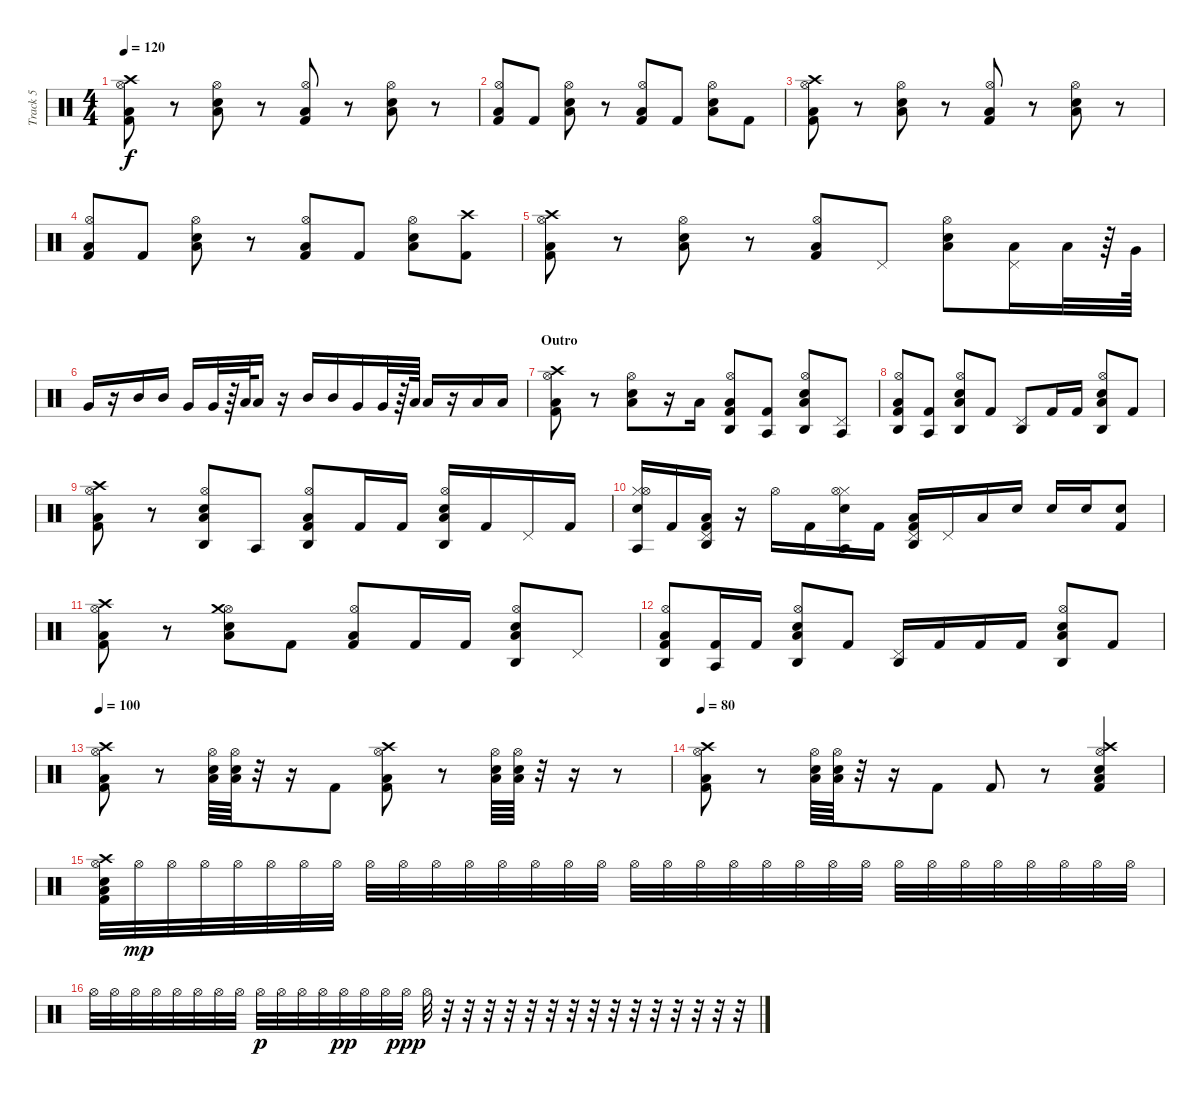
\track ("Track 5" "Track 5") {instrument percussion}
\staff {score}
\articulation defaults
\ts (4 4)
\tempo 120
\clef neutral
\ks c
("Kick (hit) 2" "Hi-Hat (open)" "Low Floor Tom (hit)" "Crash high (hit)").8{dy f} r.8 ("Snare (hit) 2" "Hi-Hat (open)" "Low Tom (hit)").8 r.8 ("Kick (hit) 2" "Hi-Hat (open)" "Low Floor Tom (hit)").8 r.8 ("Snare (hit) 2" "Hi-Hat (open)" "Low Tom (hit)").8 r.8 |
("Kick (hit) 2" "Hi-Hat (open)" "Low Floor Tom (hit)").8 "Kick (hit) 2".8 ("Snare (hit) 2" "Hi-Hat (open)" "Low Tom (hit)").8 r.8 ("Kick (hit) 2" "Hi-Hat (open)" "Low Floor Tom (hit)").8 "Kick (hit) 2".8 ("Snare (hit) 2" "Hi-Hat (open)" "Low Tom (hit)").8 "Kick (hit) 2".8 |
("Kick (hit) 2" "Hi-Hat (open)" "Low Floor Tom (hit)" "Crash high (hit)").8 r.8 ("Snare (hit) 2" "Hi-Hat (open)" "Low Tom (hit)").8 r.8 ("Kick (hit) 2" "Hi-Hat (open)" "Low Floor Tom (hit)").8 r.8 ("Snare (hit) 2" "Hi-Hat (open)" "Low Tom (hit)").8 r.8 |
("Kick (hit) 2" "Hi-Hat (open)" "Low Floor Tom (hit)").8 "Kick (hit) 2".8 ("Snare (hit) 2" "Hi-Hat (open)" "Low Tom (hit)").8 r.8 ("Kick (hit) 2" "Hi-Hat (open)" "Low Floor Tom (hit)").8 "Kick (hit) 2".8 ("Snare (hit) 2" "Hi-Hat (open)" "Low Tom (hit)").8 ("Kick (hit) 2" "Crash high (hit)").8 |
("Kick (hit) 2" "Hi-Hat (open)" "Low Floor Tom (hit)" "Crash high (hit)").8 r.8 ("Snare (hit) 2" "Hi-Hat (open)" "Low Tom (hit)").8 r.8 ("Kick (hit) 2" "Hi-Hat (open)" "Low Floor Tom (hit)").8 "Pedal Hi-Hat (hit)".8 ("Snare (hit) 2" "Hi-Hat (open)" "Low Tom (hit)").8 ("Pedal Hi-Hat (hit)" "Low Tom (hit)").16 "Low Tom (hit)".32 r.64 "Very Low Tom (hit)".64 |
"Very Low Tom (hit)".16 r.16 "Mid Tom (hit)".16 "Mid Tom (hit)".16 "Very Low Tom (hit)".16 "Very Low Tom (hit)".32 r.64 "Low Tom (hit)".64 "Low Tom (hit)".16 r.16 "Mid Tom (hit)".16 "Mid Tom (hit)".16 "Very Low Tom (hit)".16 "Very Low Tom (hit)".32 r.64 "Low Tom (hit)".64 "Low Tom (hit)".16 r.16 "Low Tom (hit)".16 "Low Tom (hit)".16 |
\section ("" "Outro")
("Kick (hit) 2" "Hi-Hat (open)" "Low Floor Tom (hit)" "Crash high (hit)").8 r.8 ("Snare (hit) 2" "Hi-Hat (open)" "Low Tom (hit)").8 r.16 "Low Tom (hit)".16 ("Kick (hit) 2" "Hi-Hat (open)" "Low Floor Tom (hit)" "Agogo high (hit)").8 ("Kick (hit) 2" "Agogo tow (hit)").8 ("Snare (hit) 2" "Hi-Hat (open)" "Low Tom (hit)" "Agogo high (hit)").8 ("Pedal Hi-Hat (hit)" "Agogo tow (hit)").8 |
("Kick (hit) 2" "Hi-Hat (open)" "Low Floor Tom (hit)" "Agogo high (hit)").8 ("Kick (hit) 2" "Agogo tow (hit)").8 ("Snare (hit) 2" "Hi-Hat (open)" "Low Tom (hit)" "Agogo high (hit)").8 "Kick (hit) 2".8 ("Pedal Hi-Hat (hit)" "Agogo high (hit)").8 "Kick (hit) 2".16 "Kick (hit) 2".16 ("Snare (hit) 2" "Hi-Hat (open)" "Low Tom (hit)" "Agogo high (hit)").8 "Kick (hit) 2".8 |
("Kick (hit) 2" "Hi-Hat (open)" "Low Floor Tom (hit)" "Crash high (hit)").8 r.8 ("Snare (hit) 2" "Hi-Hat (open)" "Low Tom (hit)" "Agogo high (hit)").8 "Agogo tow (hit)".8 ("Kick (hit) 2" "Hi-Hat (open)" "Low Floor Tom (hit)" "Agogo high (hit)").8 "Kick (hit) 2".16 "Kick (hit) 2".16 ("Snare (hit) 2" "Hi-Hat (open)" "Low Tom (hit)" "Agogo high (hit)").16 "Kick (hit) 2".16 "Pedal Hi-Hat (hit)".16 "Kick (hit) 2".16 |
("Hi-Hat (closed)" "Hi-Hat (open)" "Agogo tow (hit)" "Electric Snare (hit)").16 "Kick (hit) 2".16 ("Pedal Hi-Hat (hit)" "Kick (hit) 2" "Low Floor Tom (hit)" "Agogo high (hit)").16 r.16 "Hi-Hat (open)".16 "Kick (hit) 2".16 ("Hi-Hat (closed)" "Hi-Hat (open)" "Agogo tow (hit)" "Electric Snare (hit)").16 "Kick (hit) 2".16 ("Pedal Hi-Hat (hit)" "Kick (hit) 2" "Low Floor Tom (hit)" "Agogo high (hit)").16 "Pedal Hi-Hat (hit)".16 "Low Tom (hit)".16 "Electric Snare (hit)".16 "Electric Snare (hit)".16 "Electric Snare (hit)".16 ("Kick (hit) 2" "Snare (hit) 2").8 |
("Kick (hit) 2" "Hi-Hat (open)" "Low Floor Tom (hit)" "Crash high (hit)").8 r.8 ("Snare (hit) 2" "Hi-Hat (open)" "Low Tom (hit)" "Crash medium (hit)").8 "Kick (hit) 2".8 ("Kick (hit) 2" "Hi-Hat (open)" "Low Floor Tom (hit)").8 "Kick (hit) 2".16 "Kick (hit) 2".16 ("Snare (hit) 2" "Hi-Hat (open)" "Low Tom (hit)" "Agogo high (hit)").8 "Pedal Hi-Hat (hit)".8 |
("Kick (hit) 2" "Hi-Hat (open)" "Low Floor Tom (hit)" "Agogo high (hit)").8 ("Kick (hit) 2" "Agogo tow (hit)").16 "Kick (hit) 2".16 ("Snare (hit) 2" "Hi-Hat (open)" "Low Tom (hit)" "Agogo high (hit)").8 "Kick (hit) 2".8 ("Pedal Hi-Hat (hit)" "Agogo high (hit)").16 "Kick (hit) 2".16 "Kick (hit) 2".16 "Kick (hit) 2".16 ("Snare (hit) 2" "Hi-Hat (open)" "Low Tom (hit)" "Agogo high (hit)").8 "Kick (hit) 2".8 |
\tempo 100
("Kick (hit) 2" "Hi-Hat (open)" "Low Floor Tom (hit)" "Crash high (hit)").8 r.8 ("Snare (hit) 2" "Hi-Hat (open)" "Low Tom (hit)").64 ("Snare (hit) 2" "Hi-Hat (open)" "Low Tom (hit)").64 r.32 r.16 "Kick (hit) 2".8 ("Kick (hit) 2" "Hi-Hat (open)" "Low Floor Tom (hit)" "Crash high (hit)").8 r.8 ("Snare (hit) 2" "Hi-Hat (open)" "Low Tom (hit)").64 ("Snare (hit) 2" "Hi-Hat (open)" "Low Tom (hit)").64 r.32 r.16 r.8 |
\tempo 80
("Kick (hit) 2" "Hi-Hat (open)" "Low Floor Tom (hit)" "Crash high (hit)").8 r.8 ("Snare (hit) 2" "Hi-Hat (open)" "Low Tom (hit)").64 ("Snare (hit) 2" "Hi-Hat (open)" "Low Tom (hit)").64 r.32 r.16 "Kick (hit) 2".8 "Kick (hit) 2".8 r.8 ("Snare (hit) 2" "Hi-Hat (open)" "Low Tom (hit)" "Crash high (hit)" "Kick (hit) 2").4 |
("Kick (hit) 2" "Low Tom (hit)" "Snare (hit) 2" "Crash high (hit)" "Hi-Hat (open)").32 "Hi-Hat (open)".32{dy mp} "Hi-Hat (open)".32 "Hi-Hat (open)".32 "Hi-Hat (open)".32 "Hi-Hat (open)".32 "Hi-Hat (open)".32 "Hi-Hat (open)".32 "Hi-Hat (open)".32 "Hi-Hat (open)".32 "Hi-Hat (open)".32 "Hi-Hat (open)".32 "Hi-Hat (open)".32 "Hi-Hat (open)".32 "Hi-Hat (open)".32 "Hi-Hat (open)".32 "Hi-Hat (open)".32 "Hi-Hat (open)".32 "Hi-Hat (open)".32 "Hi-Hat (open)".32 "Hi-Hat (open)".32 "Hi-Hat (open)".32 "Hi-Hat (open)".32 "Hi-Hat (open)".32 "Hi-Hat (open)".32 "Hi-Hat (open)".32 "Hi-Hat (open)".32 "Hi-Hat (open)".32 "Hi-Hat (open)".32 "Hi-Hat (open)".32 "Hi-Hat (open)".32 "Hi-Hat (open)".32 |
"Hi-Hat (open)".32 "Hi-Hat (open)".32 "Hi-Hat (open)".32 "Hi-Hat (open)".32 "Hi-Hat (open)".32 "Hi-Hat (open)".32 "Hi-Hat (open)".32 "Hi-Hat (open)".32 "Hi-Hat (open)".32{dy p} "Hi-Hat (open)".32 "Hi-Hat (open)".32 "Hi-Hat (open)".32 "Hi-Hat (open)".32{dy pp} "Hi-Hat (open)".32 "Hi-Hat (open)".32 "Hi-Hat (open)".32{dy ppp} "Hi-Hat (open)".32 r.32 r.32 r.32 r.32 r.32 r.32 r.32 r.32 r.32 r.32 r.32 r.32 r.32 r.32 r.32
